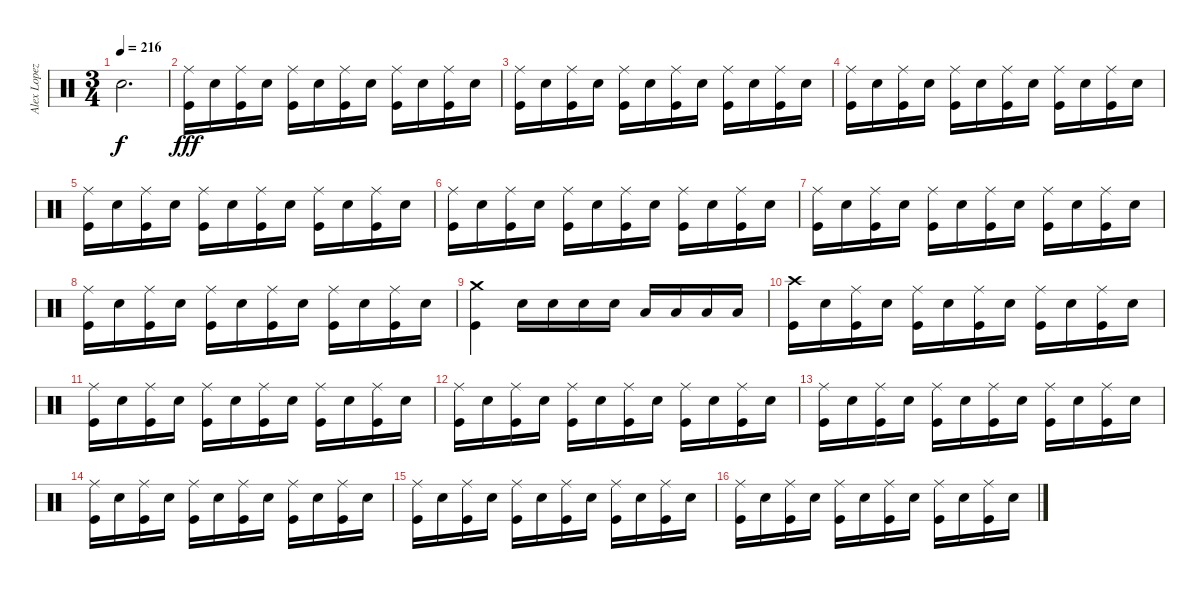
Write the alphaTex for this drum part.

\track ("Alex Lopez" "Alex Lopez") {instrument percussion}
\staff {score}
\articulation defaults
\ts (3 4)
\tempo 216
\clef neutral
\ks c "Electric Snare (hit)".2{d dy f}
|
("Ride (middle)" "Kick (hit)").16{dy fff} "Electric Snare (hit)".16 ("Ride (middle)" "Kick (hit)").16 "Electric Snare (hit)".16 ("Ride (middle)" "Kick (hit)").16 "Electric Snare (hit)".16 ("Ride (middle)" "Kick (hit)").16 "Electric Snare (hit)".16 ("Ride (middle)" "Kick (hit)").16 "Electric Snare (hit)".16 ("Ride (middle)" "Kick (hit)").16 "Electric Snare (hit)".16 |
("Ride (middle)" "Kick (hit)").16 "Electric Snare (hit)".16 ("Ride (middle)" "Kick (hit)").16 "Electric Snare (hit)".16 ("Ride (middle)" "Kick (hit)").16 "Electric Snare (hit)".16 ("Ride (middle)" "Kick (hit)").16 "Electric Snare (hit)".16 ("Ride (middle)" "Kick (hit)").16 "Electric Snare (hit)".16 ("Ride (middle)" "Kick (hit)").16 "Electric Snare (hit)".16 |
("Ride (middle)" "Kick (hit)").16 "Electric Snare (hit)".16 ("Ride (middle)" "Kick (hit)").16 "Electric Snare (hit)".16 ("Ride (middle)" "Kick (hit)").16 "Electric Snare (hit)".16 ("Ride (middle)" "Kick (hit)").16 "Electric Snare (hit)".16 ("Ride (middle)" "Kick (hit)").16 "Electric Snare (hit)".16 ("Ride (middle)" "Kick (hit)").16 "Electric Snare (hit)".16 |
("Ride (middle)" "Kick (hit)").16 "Electric Snare (hit)".16 ("Ride (middle)" "Kick (hit)").16 "Electric Snare (hit)".16 ("Ride (middle)" "Kick (hit)").16 "Electric Snare (hit)".16 ("Ride (middle)" "Kick (hit)").16 "Electric Snare (hit)".16 ("Ride (middle)" "Kick (hit)").16 "Electric Snare (hit)".16 ("Ride (middle)" "Kick (hit)").16 "Electric Snare (hit)".16 |
("Ride (middle)" "Kick (hit)").16 "Electric Snare (hit)".16 ("Ride (middle)" "Kick (hit)").16 "Electric Snare (hit)".16 ("Ride (middle)" "Kick (hit)").16 "Electric Snare (hit)".16 ("Ride (middle)" "Kick (hit)").16 "Electric Snare (hit)".16 ("Ride (middle)" "Kick (hit)").16 "Electric Snare (hit)".16 ("Ride (middle)" "Kick (hit)").16 "Electric Snare (hit)".16 |
("Ride (middle)" "Kick (hit)").16 "Electric Snare (hit)".16 ("Ride (middle)" "Kick (hit)").16 "Electric Snare (hit)".16 ("Ride (middle)" "Kick (hit)").16 "Electric Snare (hit)".16 ("Ride (middle)" "Kick (hit)").16 "Electric Snare (hit)".16 ("Ride (middle)" "Kick (hit)").16 "Electric Snare (hit)".16 ("Ride (middle)" "Kick (hit)").16 "Electric Snare (hit)".16 |
("Ride (middle)" "Kick (hit)").16 "Electric Snare (hit)".16 ("Ride (middle)" "Kick (hit)").16 "Electric Snare (hit)".16 ("Ride (middle)" "Kick (hit)").16 "Electric Snare (hit)".16 ("Ride (middle)" "Kick (hit)").16 "Electric Snare (hit)".16 ("Ride (middle)" "Kick (hit)").16 "Electric Snare (hit)".16 ("Ride (middle)" "Kick (hit)").16 "Electric Snare (hit)".16 |
("Crash medium (hit)" "Kick (hit)").4 "Electric Snare (hit)".16 "Electric Snare (hit)".16 "Electric Snare (hit)".16 "Electric Snare (hit)".16 "Low Floor Tom (hit)".16 "Low Floor Tom (hit)".16 "Low Floor Tom (hit)".16 "Low Floor Tom (hit)".16 |
("Crash high (hit)" "Kick (hit)").16 "Electric Snare (hit)".16 ("Ride (middle)" "Kick (hit)").16 "Electric Snare (hit)".16 ("Ride (middle)" "Kick (hit)").16 "Electric Snare (hit)".16 ("Ride (middle)" "Kick (hit)").16 "Electric Snare (hit)".16 ("Ride (middle)" "Kick (hit)").16 "Electric Snare (hit)".16 ("Ride (middle)" "Kick (hit)").16 "Electric Snare (hit)".16 |
("Ride (middle)" "Kick (hit)").16 "Electric Snare (hit)".16 ("Ride (middle)" "Kick (hit)").16 "Electric Snare (hit)".16 ("Ride (middle)" "Kick (hit)").16 "Electric Snare (hit)".16 ("Ride (middle)" "Kick (hit)").16 "Electric Snare (hit)".16 ("Ride (middle)" "Kick (hit)").16 "Electric Snare (hit)".16 ("Ride (middle)" "Kick (hit)").16 "Electric Snare (hit)".16 |
("Ride (middle)" "Kick (hit)").16 "Electric Snare (hit)".16 ("Ride (middle)" "Kick (hit)").16 "Electric Snare (hit)".16 ("Ride (middle)" "Kick (hit)").16 "Electric Snare (hit)".16 ("Ride (middle)" "Kick (hit)").16 "Electric Snare (hit)".16 ("Ride (middle)" "Kick (hit)").16 "Electric Snare (hit)".16 ("Ride (middle)" "Kick (hit)").16 "Electric Snare (hit)".16 |
("Ride (middle)" "Kick (hit)").16 "Electric Snare (hit)".16 ("Ride (middle)" "Kick (hit)").16 "Electric Snare (hit)".16 ("Ride (middle)" "Kick (hit)").16 "Electric Snare (hit)".16 ("Ride (middle)" "Kick (hit)").16 "Electric Snare (hit)".16 ("Ride (middle)" "Kick (hit)").16 "Electric Snare (hit)".16 ("Ride (middle)" "Kick (hit)").16 "Electric Snare (hit)".16 |
("Ride (middle)" "Kick (hit)").16 "Electric Snare (hit)".16 ("Ride (middle)" "Kick (hit)").16 "Electric Snare (hit)".16 ("Ride (middle)" "Kick (hit)").16 "Electric Snare (hit)".16 ("Ride (middle)" "Kick (hit)").16 "Electric Snare (hit)".16 ("Ride (middle)" "Kick (hit)").16 "Electric Snare (hit)".16 ("Ride (middle)" "Kick (hit)").16 "Electric Snare (hit)".16 |
("Ride (middle)" "Kick (hit)").16 "Electric Snare (hit)".16 ("Ride (middle)" "Kick (hit)").16 "Electric Snare (hit)".16 ("Ride (middle)" "Kick (hit)").16 "Electric Snare (hit)".16 ("Ride (middle)" "Kick (hit)").16 "Electric Snare (hit)".16 ("Ride (middle)" "Kick (hit)").16 "Electric Snare (hit)".16 ("Ride (middle)" "Kick (hit)").16 "Electric Snare (hit)".16 |
("Ride (middle)" "Kick (hit)").16 "Electric Snare (hit)".16 ("Ride (middle)" "Kick (hit)").16 "Electric Snare (hit)".16 ("Ride (middle)" "Kick (hit)").16 "Electric Snare (hit)".16 ("Ride (middle)" "Kick (hit)").16 "Electric Snare (hit)".16 ("Ride (middle)" "Kick (hit)").16 "Electric Snare (hit)".16 ("Ride (middle)" "Kick (hit)").16 "Electric Snare (hit)".16
